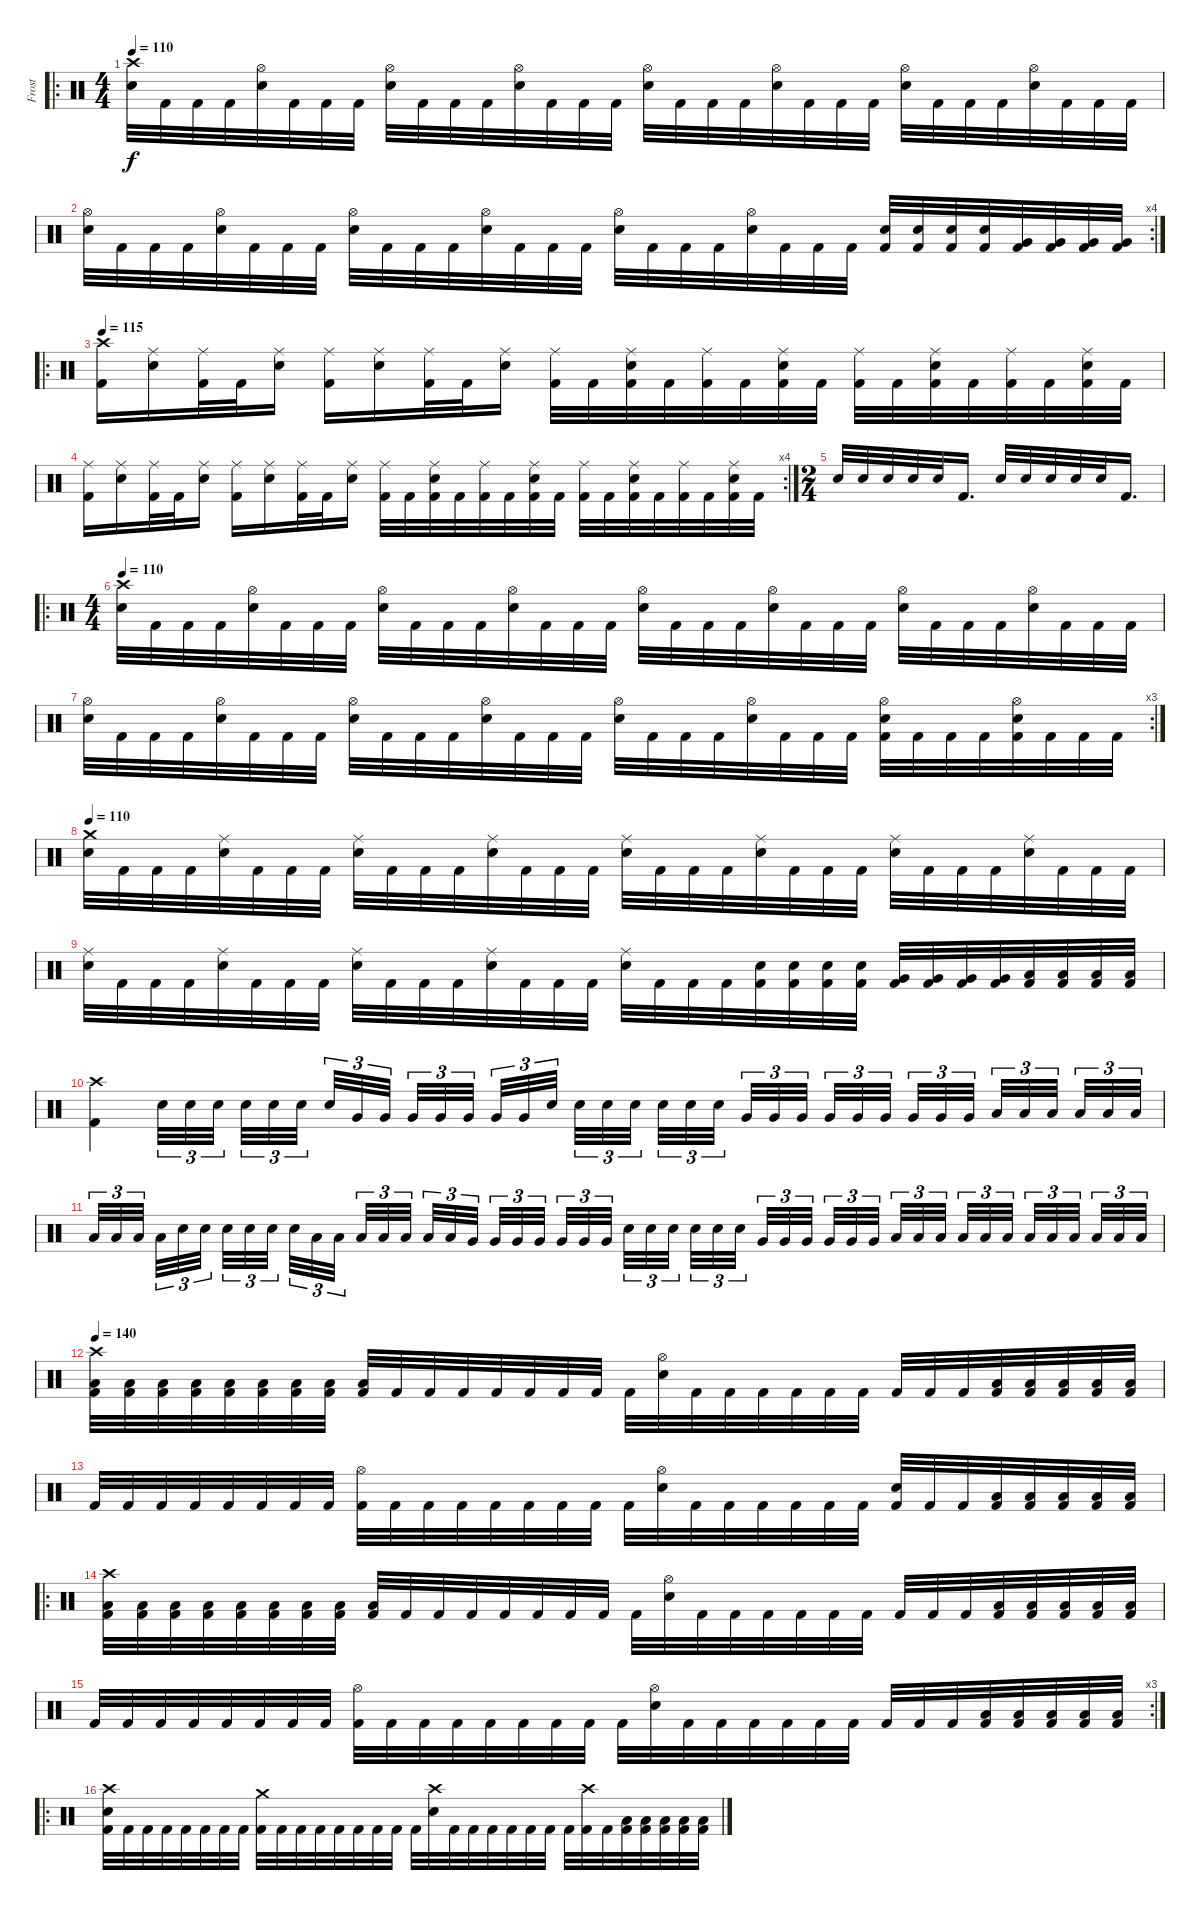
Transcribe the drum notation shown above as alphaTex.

\track ("Frost" "Frost") {instrument percussion}
\staff {score}
\articulation defaults
\ro
\ts (4 4)
\tempo 110
\clef neutral
\ks c
("Crash high (hit)" "Snare (hit) 2").32{dy f} "Kick (hit) 2".32 "Kick (hit) 2".32 "Kick (hit) 2".32 ("Hi-Hat (open)" "Snare (hit) 2").32 "Kick (hit) 2".32 "Kick (hit) 2".32 "Kick (hit) 2".32 ("Hi-Hat (open)" "Snare (hit) 2").32 "Kick (hit) 2".32 "Kick (hit) 2".32 "Kick (hit) 2".32 ("Hi-Hat (open)" "Snare (hit) 2").32 "Kick (hit) 2".32 "Kick (hit) 2".32 "Kick (hit) 2".32 ("Hi-Hat (open)" "Snare (hit) 2").32 "Kick (hit) 2".32 "Kick (hit) 2".32 "Kick (hit) 2".32 ("Hi-Hat (open)" "Snare (hit) 2").32 "Kick (hit) 2".32 "Kick (hit) 2".32 "Kick (hit) 2".32 ("Hi-Hat (open)" "Snare (hit) 2").32 "Kick (hit) 2".32 "Kick (hit) 2".32 "Kick (hit) 2".32 ("Hi-Hat (open)" "Snare (hit) 2").32 "Kick (hit) 2".32 "Kick (hit) 2".32 "Kick (hit) 2".32 |
\rc 4
("Hi-Hat (open)" "Snare (hit) 2").32 "Kick (hit) 2".32 "Kick (hit) 2".32 "Kick (hit) 2".32 ("Hi-Hat (open)" "Snare (hit) 2").32 "Kick (hit) 2".32 "Kick (hit) 2".32 "Kick (hit) 2".32 ("Hi-Hat (open)" "Snare (hit) 2").32 "Kick (hit) 2".32 "Kick (hit) 2".32 "Kick (hit) 2".32 ("Hi-Hat (open)" "Snare (hit) 2").32 "Kick (hit) 2".32 "Kick (hit) 2".32 "Kick (hit) 2".32 ("Hi-Hat (open)" "Snare (hit) 2").32 "Kick (hit) 2".32 "Kick (hit) 2".32 "Kick (hit) 2".32 ("Hi-Hat (open)" "Snare (hit) 2").32 "Kick (hit) 2".32 "Kick (hit) 2".32 "Kick (hit) 2".32 ("Snare (hit) 2" "Kick (hit) 2").32 ("Snare (hit) 2" "Kick (hit) 2").32 ("Snare (hit) 2" "Kick (hit) 2").32 ("Snare (hit) 2" "Kick (hit) 2").32 ("Very Low Tom (hit)" "Kick (hit) 2").32 ("Very Low Tom (hit)" "Kick (hit) 2").32 ("Very Low Tom (hit)" "Kick (hit) 2").32 ("Very Low Tom (hit)" "Kick (hit) 2").32 |
\ro
\tempo 110
\tempo 115
("Crash high (hit)" "Kick (hit) 2").16 ("Ride (middle)" "Snare (hit) 2").16 ("Ride (middle)" "Kick (hit) 2").32 "Kick (hit) 2".32 ("Ride (middle)" "Snare (hit) 2").16 ("Ride (middle)" "Kick (hit) 2").16 ("Ride (middle)" "Snare (hit) 2").16 ("Ride (middle)" "Kick (hit) 2").32 "Kick (hit) 2".32 ("Ride (middle)" "Snare (hit) 2").16 ("Ride (middle)" "Kick (hit) 2").32 "Kick (hit) 2".32 ("Ride (middle)" "Snare (hit) 2" "Kick (hit) 2").32 "Kick (hit) 2".32 ("Ride (middle)" "Kick (hit) 2").32 "Kick (hit) 2".32 ("Ride (middle)" "Snare (hit) 2" "Kick (hit) 2").32 "Kick (hit) 2".32 ("Ride (middle)" "Kick (hit) 2").32 "Kick (hit) 2".32 ("Ride (middle)" "Snare (hit) 2" "Kick (hit) 2").32 "Kick (hit) 2".32 ("Ride (middle)" "Kick (hit) 2").32 "Kick (hit) 2".32 ("Ride (middle)" "Snare (hit) 2" "Kick (hit) 2").32 "Kick (hit) 2".32 |
\rc 4
("Ride (middle)" "Kick (hit) 2").16 ("Ride (middle)" "Snare (hit) 2").16 ("Ride (middle)" "Kick (hit) 2").32 "Kick (hit) 2".32 ("Ride (middle)" "Snare (hit) 2").16 ("Ride (middle)" "Kick (hit) 2").16 ("Ride (middle)" "Snare (hit) 2").16 ("Ride (middle)" "Kick (hit) 2").32 "Kick (hit) 2".32 ("Ride (middle)" "Snare (hit) 2").16 ("Ride (middle)" "Kick (hit) 2").32 "Kick (hit) 2".32 ("Ride (middle)" "Snare (hit) 2" "Kick (hit) 2").32 "Kick (hit) 2".32 ("Ride (middle)" "Kick (hit) 2").32 "Kick (hit) 2".32 ("Ride (middle)" "Snare (hit) 2" "Kick (hit) 2").32 "Kick (hit) 2".32 ("Ride (middle)" "Kick (hit) 2").32 "Kick (hit) 2".32 ("Ride (middle)" "Snare (hit) 2" "Kick (hit) 2").32 "Kick (hit) 2".32 ("Ride (middle)" "Kick (hit) 2").32 "Kick (hit) 2".32 ("Ride (middle)" "Snare (hit) 2" "Kick (hit) 2").32 "Kick (hit) 2".32 |
\ts (2 4)
"Snare (hit) 2".32 "Snare (hit) 2".32 "Snare (hit) 2".32 "Snare (hit) 2".32 "Snare (hit) 2".32 "Kick (hit) 2".16{d} "Snare (hit) 2".32 "Snare (hit) 2".32 "Snare (hit) 2".32 "Snare (hit) 2".32 "Snare (hit) 2".32 "Kick (hit) 2".16{d} |
\ro
\ts (4 4)
\tempo 110
("Crash high (hit)" "Snare (hit) 2").32 "Kick (hit) 2".32 "Kick (hit) 2".32 "Kick (hit) 2".32 ("Hi-Hat (open)" "Snare (hit) 2").32 "Kick (hit) 2".32 "Kick (hit) 2".32 "Kick (hit) 2".32 ("Hi-Hat (open)" "Snare (hit) 2").32 "Kick (hit) 2".32 "Kick (hit) 2".32 "Kick (hit) 2".32 ("Hi-Hat (open)" "Snare (hit) 2").32 "Kick (hit) 2".32 "Kick (hit) 2".32 "Kick (hit) 2".32 ("Hi-Hat (open)" "Snare (hit) 2").32 "Kick (hit) 2".32 "Kick (hit) 2".32 "Kick (hit) 2".32 ("Hi-Hat (open)" "Snare (hit) 2").32 "Kick (hit) 2".32 "Kick (hit) 2".32 "Kick (hit) 2".32 ("Hi-Hat (open)" "Snare (hit) 2").32 "Kick (hit) 2".32 "Kick (hit) 2".32 "Kick (hit) 2".32 ("Hi-Hat (open)" "Snare (hit) 2").32 "Kick (hit) 2".32 "Kick (hit) 2".32 "Kick (hit) 2".32 |
\rc 3
("Hi-Hat (open)" "Snare (hit) 2").32 "Kick (hit) 2".32 "Kick (hit) 2".32 "Kick (hit) 2".32 ("Hi-Hat (open)" "Snare (hit) 2").32 "Kick (hit) 2".32 "Kick (hit) 2".32 "Kick (hit) 2".32 ("Hi-Hat (open)" "Snare (hit) 2").32 "Kick (hit) 2".32 "Kick (hit) 2".32 "Kick (hit) 2".32 ("Hi-Hat (open)" "Snare (hit) 2").32 "Kick (hit) 2".32 "Kick (hit) 2".32 "Kick (hit) 2".32 ("Hi-Hat (open)" "Snare (hit) 2").32 "Kick (hit) 2".32 "Kick (hit) 2".32 "Kick (hit) 2".32 ("Hi-Hat (open)" "Snare (hit) 2").32 "Kick (hit) 2".32 "Kick (hit) 2".32 "Kick (hit) 2".32 ("Hi-Hat (open)" "Snare (hit) 2" "Kick (hit) 2").32 "Kick (hit) 2".32 "Kick (hit) 2".32 "Kick (hit) 2".32 ("Hi-Hat (open)" "Snare (hit) 2" "Kick (hit) 2").32 "Kick (hit) 2".32 "Kick (hit) 2".32 "Kick (hit) 2".32 |
\tempo 110
("Crash medium (hit)" "Snare (hit) 2").32 "Kick (hit) 2".32 "Kick (hit) 2".32 "Kick (hit) 2".32 ("Ride (middle)" "Snare (hit) 2").32 "Kick (hit) 2".32 "Kick (hit) 2".32 "Kick (hit) 2".32 ("Ride (middle)" "Snare (hit) 2").32 "Kick (hit) 2".32 "Kick (hit) 2".32 "Kick (hit) 2".32 ("Ride (middle)" "Snare (hit) 2").32 "Kick (hit) 2".32 "Kick (hit) 2".32 "Kick (hit) 2".32 ("Ride (middle)" "Snare (hit) 2").32 "Kick (hit) 2".32 "Kick (hit) 2".32 "Kick (hit) 2".32 ("Ride (middle)" "Snare (hit) 2").32 "Kick (hit) 2".32 "Kick (hit) 2".32 "Kick (hit) 2".32 ("Ride (middle)" "Snare (hit) 2").32 "Kick (hit) 2".32 "Kick (hit) 2".32 "Kick (hit) 2".32 ("Ride (middle)" "Snare (hit) 2").32 "Kick (hit) 2".32 "Kick (hit) 2".32 "Kick (hit) 2".32 |
("Ride (middle)" "Snare (hit) 2").32 "Kick (hit) 2".32 "Kick (hit) 2".32 "Kick (hit) 2".32 ("Ride (middle)" "Snare (hit) 2").32 "Kick (hit) 2".32 "Kick (hit) 2".32 "Kick (hit) 2".32 ("Ride (middle)" "Snare (hit) 2").32 "Kick (hit) 2".32 "Kick (hit) 2".32 "Kick (hit) 2".32 ("Ride (middle)" "Snare (hit) 2").32 "Kick (hit) 2".32 "Kick (hit) 2".32 "Kick (hit) 2".32 ("Ride (middle)" "Snare (hit) 2").32 "Kick (hit) 2".32 "Kick (hit) 2".32 "Kick (hit) 2".32 ("Snare (hit) 2" "Kick (hit) 2").32 ("Snare (hit) 2" "Kick (hit) 2").32 ("Snare (hit) 2" "Kick (hit) 2").32 ("Snare (hit) 2" "Kick (hit) 2").32 ("Very Low Tom (hit)" "Kick (hit) 2").32 ("Very Low Tom (hit)" "Kick (hit) 2").32 ("Very Low Tom (hit)" "Kick (hit) 2").32 ("Very Low Tom (hit)" "Kick (hit) 2").32 ("Low Floor Tom (hit)" "Kick (hit) 2").32 ("Low Floor Tom (hit)" "Kick (hit) 2").32 ("Low Floor Tom (hit)" "Kick (hit) 2").32 ("Low Floor Tom (hit)" "Kick (hit) 2").32 |
("Crash high (hit)" "Kick (hit) 2").4 "Snare (hit) 2".32{tu (3 2)} "Snare (hit) 2".32{tu (3 2)} "Snare (hit) 2".32{tu (3 2) beam splitsecondary} "Snare (hit) 2".32{tu (3 2)} "Snare (hit) 2".32{tu (3 2)} "Snare (hit) 2".32{tu (3 2) beam splitsecondary} "Snare (hit) 2".32{tu (3 2)} "Very Low Tom (hit)".32{tu (3 2)} "Very Low Tom (hit)".32{tu (3 2) beam splitsecondary} "Very Low Tom (hit)".32{tu (3 2)} "Very Low Tom (hit)".32{tu (3 2)} "Very Low Tom (hit)".32{tu (3 2)} "Very Low Tom (hit)".32{tu (3 2)} "Very Low Tom (hit)".32{tu (3 2)} "Snare (hit) 2".32{tu (3 2) beam splitsecondary} "Snare (hit) 2".32{tu (3 2)} "Snare (hit) 2".32{tu (3 2)} "Snare (hit) 2".32{tu (3 2) beam splitsecondary} "Snare (hit) 2".32{tu (3 2)} "Snare (hit) 2".32{tu (3 2)} "Snare (hit) 2".32{tu (3 2) beam splitsecondary} "Very Low Tom (hit)".32{tu (3 2)} "Very Low Tom (hit)".32{tu (3 2)} "Very Low Tom (hit)".32{tu (3 2)} "Very Low Tom (hit)".32{tu (3 2)} "Very Low Tom (hit)".32{tu (3 2)} "Very Low Tom (hit)".32{tu (3 2) beam splitsecondary} "Very Low Tom (hit)".32{tu (3 2)} "Very Low Tom (hit)".32{tu (3 2)} "Very Low Tom (hit)".32{tu (3 2) beam splitsecondary} "Low Floor Tom (hit)".32{tu (3 2)} "Low Floor Tom (hit)".32{tu (3 2)} "Low Floor Tom (hit)".32{tu (3 2) beam splitsecondary} "Low Floor Tom (hit)".32{tu (3 2)} "Low Floor Tom (hit)".32{tu (3 2)} "Low Floor Tom (hit)".32{tu (3 2)} |
"Low Floor Tom (hit)".32{tu (3 2)} "Low Floor Tom (hit)".32{tu (3 2)} "Low Floor Tom (hit)".32{tu (3 2) beam splitsecondary} "Low Floor Tom (hit)".32{tu (3 2)} "Snare (hit) 2".32{tu (3 2)} "Snare (hit) 2".32{tu (3 2) beam splitsecondary} "Snare (hit) 2".32{tu (3 2)} "Snare (hit) 2".32{tu (3 2)} "Snare (hit) 2".32{tu (3 2) beam splitsecondary} "Snare (hit) 2".32{tu (3 2)} "Low Tom (hit)".32{tu (3 2)} "Low Tom (hit)".32{tu (3 2)} "Low Tom (hit)".32{tu (3 2)} "Low Tom (hit)".32{tu (3 2)} "Low Tom (hit)".32{tu (3 2) beam splitsecondary} "Low Tom (hit)".32{tu (3 2)} "Low Tom (hit)".32{tu (3 2)} "Very Low Tom (hit)".32{tu (3 2) beam splitsecondary} "Very Low Tom (hit)".32{tu (3 2)} "Very Low Tom (hit)".32{tu (3 2)} "Very Low Tom (hit)".32{tu (3 2) beam splitsecondary} "Very Low Tom (hit)".32{tu (3 2)} "Very Low Tom (hit)".32{tu (3 2)} "Very Low Tom (hit)".32{tu (3 2)} "Snare (hit) 2".32{tu (3 2)} "Snare (hit) 2".32{tu (3 2)} "Snare (hit) 2".32{tu (3 2) beam splitsecondary} "Snare (hit) 2".32{tu (3 2)} "Snare (hit) 2".32{tu (3 2)} "Snare (hit) 2".32{tu (3 2) beam splitsecondary} "Very Low Tom (hit)".32{tu (3 2)} "Very Low Tom (hit)".32{tu (3 2)} "Very Low Tom (hit)".32{tu (3 2) beam splitsecondary} "Very Low Tom (hit)".32{tu (3 2)} "Very Low Tom (hit)".32{tu (3 2)} "Very Low Tom (hit)".32{tu (3 2)} "Low Floor Tom (hit)".32{tu (3 2)} "Low Floor Tom (hit)".32{tu (3 2)} "Low Floor Tom (hit)".32{tu (3 2) beam splitsecondary} "Low Floor Tom (hit)".32{tu (3 2)} "Low Floor Tom (hit)".32{tu (3 2)} "Low Floor Tom (hit)".32{tu (3 2) beam splitsecondary} "Low Floor Tom (hit)".32{tu (3 2)} "Low Floor Tom (hit)".32{tu (3 2)} "Low Floor Tom (hit)".32{tu (3 2) beam splitsecondary} "Low Floor Tom (hit)".32{tu (3 2)} "Low Floor Tom (hit)".32{tu (3 2)} "Low Floor Tom (hit)".32{tu (3 2)} |
\tempo 140
("Crash high (hit)" "Low Tom (hit)" "Kick (hit) 2").32 ("Low Tom (hit)" "Kick (hit) 2").32 ("Low Tom (hit)" "Kick (hit) 2").32 ("Low Tom (hit)" "Kick (hit) 2").32 ("Low Floor Tom (hit)" "Kick (hit) 2").32 ("Low Floor Tom (hit)" "Kick (hit) 2").32 ("Low Floor Tom (hit)" "Kick (hit) 2").32 ("Low Floor Tom (hit)" "Kick (hit) 2").32 ("Low Floor Tom (hit)" "Kick (hit) 2").32 "Kick (hit) 2".32 "Kick (hit) 2".32 "Kick (hit) 2".32 "Kick (hit) 2".32 "Kick (hit) 2".32 "Kick (hit) 2".32 "Kick (hit) 2".32 "Kick (hit) 2".32 ("Hi-Hat (open)" "Snare (hit) 2").32 "Kick (hit) 2".32 "Kick (hit) 2".32 "Kick (hit) 2".32 "Kick (hit) 2".32 "Kick (hit) 2".32 "Kick (hit) 2".32 "Kick (hit) 2".32 "Kick (hit) 2".32 "Kick (hit) 2".32 ("Low Tom (hit)" "Kick (hit) 2").32 ("Low Tom (hit)" "Kick (hit) 2").32 ("Low Tom (hit)" "Kick (hit) 2").32 ("Low Tom (hit)" "Kick (hit) 2").32 ("Low Tom (hit)" "Kick (hit) 2").32 |
"Kick (hit) 2".32 "Kick (hit) 2".32 "Kick (hit) 2".32 "Kick (hit) 2".32 "Kick (hit) 2".32 "Kick (hit) 2".32 "Kick (hit) 2".32 "Kick (hit) 2".32 ("Hi-Hat (open)" "Kick (hit) 2").32 "Kick (hit) 2".32 "Kick (hit) 2".32 "Kick (hit) 2".32 "Kick (hit) 2".32 "Kick (hit) 2".32 "Kick (hit) 2".32 "Kick (hit) 2".32 "Kick (hit) 2".32 ("Hi-Hat (open)" "Snare (hit) 2").32 "Kick (hit) 2".32 "Kick (hit) 2".32 "Kick (hit) 2".32 "Kick (hit) 2".32 "Kick (hit) 2".32 "Kick (hit) 2".32 ("Snare (hit) 2" "Kick (hit) 2").32 "Kick (hit) 2".32 "Kick (hit) 2".32 ("Low Tom (hit)" "Kick (hit) 2").32 ("Low Tom (hit)" "Kick (hit) 2").32 ("Low Tom (hit)" "Kick (hit) 2").32 ("Low Tom (hit)" "Kick (hit) 2").32 ("Low Tom (hit)" "Kick (hit) 2").32 |
\ro
("Crash high (hit)" "Low Tom (hit)" "Kick (hit) 2").32 ("Low Tom (hit)" "Kick (hit) 2").32 ("Low Tom (hit)" "Kick (hit) 2").32 ("Low Tom (hit)" "Kick (hit) 2").32 ("Low Floor Tom (hit)" "Kick (hit) 2").32 ("Low Floor Tom (hit)" "Kick (hit) 2").32 ("Low Floor Tom (hit)" "Kick (hit) 2").32 ("Low Floor Tom (hit)" "Kick (hit) 2").32 ("Low Floor Tom (hit)" "Kick (hit) 2").32 "Kick (hit) 2".32 "Kick (hit) 2".32 "Kick (hit) 2".32 "Kick (hit) 2".32 "Kick (hit) 2".32 "Kick (hit) 2".32 "Kick (hit) 2".32 "Kick (hit) 2".32 ("Hi-Hat (open)" "Snare (hit) 2").32 "Kick (hit) 2".32 "Kick (hit) 2".32 "Kick (hit) 2".32 "Kick (hit) 2".32 "Kick (hit) 2".32 "Kick (hit) 2".32 "Kick (hit) 2".32 "Kick (hit) 2".32 "Kick (hit) 2".32 ("Low Tom (hit)" "Kick (hit) 2").32 ("Low Tom (hit)" "Kick (hit) 2").32 ("Low Tom (hit)" "Kick (hit) 2").32 ("Low Tom (hit)" "Kick (hit) 2").32 ("Low Tom (hit)" "Kick (hit) 2").32 |
\rc 3 "Kick (hit) 2".32 "Kick (hit) 2".32 "Kick (hit) 2".32 "Kick (hit) 2".32 "Kick (hit) 2".32 "Kick (hit) 2".32 "Kick (hit) 2".32 "Kick (hit) 2".32
("Hi-Hat (open)" "Kick (hit) 2").32 "Kick (hit) 2".32 "Kick (hit) 2".32 "Kick (hit) 2".32 "Kick (hit) 2".32 "Kick (hit) 2".32 "Kick (hit) 2".32 "Kick (hit) 2".32 "Kick (hit) 2".32 ("Hi-Hat (open)" "Snare (hit) 2").32 "Kick (hit) 2".32 "Kick (hit) 2".32 "Kick (hit) 2".32 "Kick (hit) 2".32 "Kick (hit) 2".32 "Kick (hit) 2".32 "Kick (hit) 2".32 "Kick (hit) 2".32 "Kick (hit) 2".32 ("Low Tom (hit)" "Kick (hit) 2").32 ("Low Tom (hit)" "Kick (hit) 2").32 ("Low Tom (hit)" "Kick (hit) 2").32 ("Low Tom (hit)" "Kick (hit) 2").32 ("Low Tom (hit)" "Kick (hit) 2").32 |
\ro
("Crash high (hit)" "Snare (hit) 2" "Kick (hit) 2").32 "Kick (hit) 2".32 "Kick (hit) 2".32 "Kick (hit) 2".32 "Kick (hit) 2".32 "Kick (hit) 2".32 "Kick (hit) 2".32 "Kick (hit) 2".32 ("Crash medium (hit)" "Kick (hit) 2").32 "Kick (hit) 2".32 "Kick (hit) 2".32 "Kick (hit) 2".32 "Kick (hit) 2".32 "Kick (hit) 2".32 "Kick (hit) 2".32 "Kick (hit) 2".32 "Kick (hit) 2".32 ("Crash high (hit)" "Snare (hit) 2").32 "Kick (hit) 2".32 "Kick (hit) 2".32 "Kick (hit) 2".32 "Kick (hit) 2".32 "Kick (hit) 2".32 "Kick (hit) 2".32 "Kick (hit) 2".32 ("Crash high (hit)" "Kick (hit) 2").32 "Kick (hit) 2".32 ("Low Tom (hit)" "Kick (hit) 2").32 ("Low Tom (hit)" "Kick (hit) 2").32 ("Low Tom (hit)" "Kick (hit) 2").32 ("Low Tom (hit)" "Kick (hit) 2").32 ("Low Tom (hit)" "Kick (hit) 2").32
